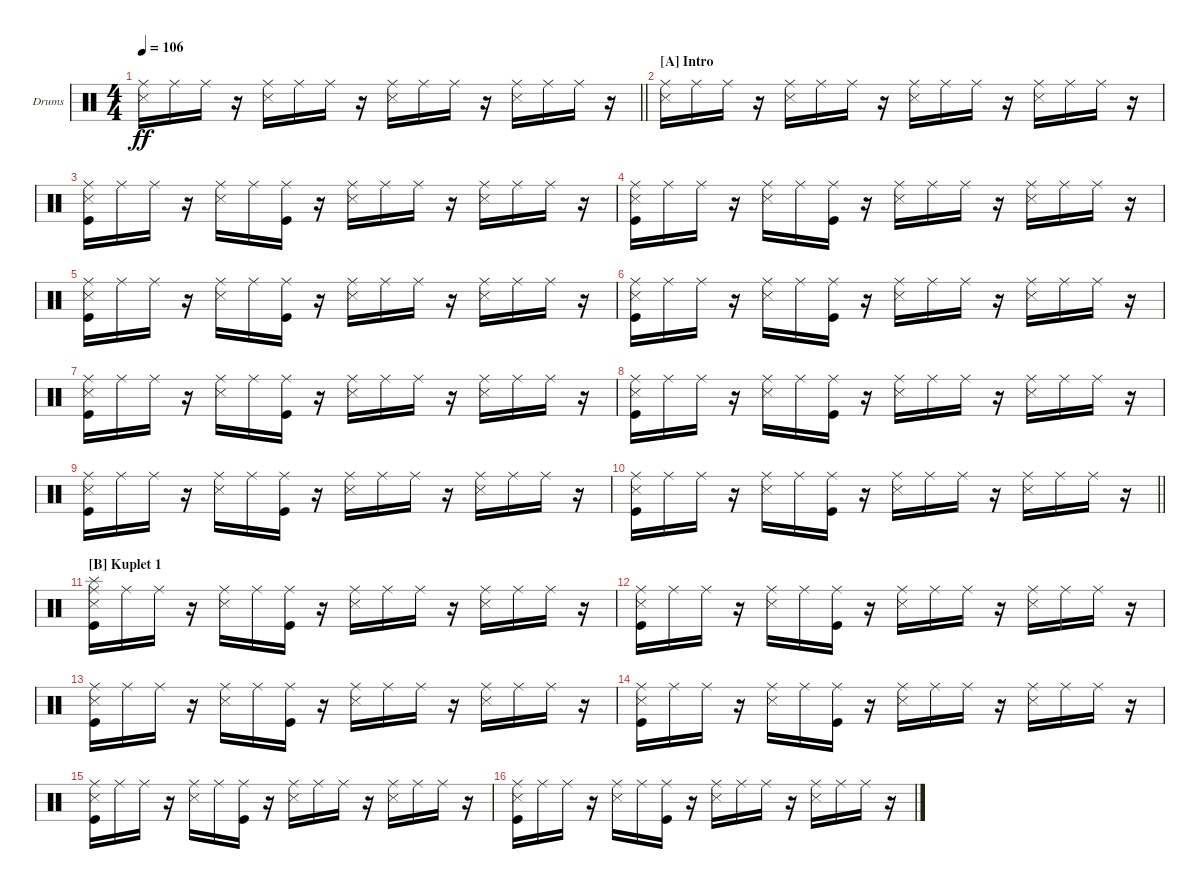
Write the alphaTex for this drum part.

\bracketExtendMode groupsimilarinstruments
\firstSystemTrackNameOrientation horizontal
\otherSystemsTrackNameOrientation horizontal
\track ("Udarnyye | A. Storozhuk" "Drums") {instrument percussion}
\staff {score}
\articulation defaults
\ts (4 4)
\beaming (8 2 2 2 2)
\tempo 106
\clef neutral
\barLineRight lightlight
\ks c
("Ride (middle)" "Snare (side stick) 3").16{dy ff} "Ride (middle)".16 "Ride (middle)".16 r.16 ("Ride (middle)" "Snare (side stick) 3").16 "Ride (middle)".16 "Ride (middle)".16 r.16 ("Ride (middle)" "Snare (side stick) 3").16 "Ride (middle)".16 "Ride (middle)".16 r.16 ("Ride (middle)" "Snare (side stick) 3").16 "Ride (middle)".16 "Ride (middle)".16 r.16 |
\section ("A" "Intro")
("Ride (middle)" "Snare (side stick) 3").16 "Ride (middle)".16 "Ride (middle)".16 r.16 ("Ride (middle)" "Snare (side stick) 3").16 "Ride (middle)".16 "Ride (middle)".16 r.16 ("Ride (middle)" "Snare (side stick) 3").16 "Ride (middle)".16 "Ride (middle)".16 r.16 ("Ride (middle)" "Snare (side stick) 3").16 "Ride (middle)".16 "Ride (middle)".16 r.16 |
("Ride (middle)" "Kick (hit)" "Snare (side stick) 3").16 "Ride (middle)".16 "Ride (middle)".16 r.16 ("Ride (middle)" "Snare (side stick) 3").16 "Ride (middle)".16 ("Ride (middle)" "Kick (hit)").16 r.16 ("Ride (middle)" "Snare (side stick) 3").16 "Ride (middle)".16 "Ride (middle)".16 r.16 ("Ride (middle)" "Snare (side stick) 3").16 "Ride (middle)".16 "Ride (middle)".16 r.16 |
("Ride (middle)" "Kick (hit)" "Snare (side stick) 3").16 "Ride (middle)".16 "Ride (middle)".16 r.16 ("Ride (middle)" "Snare (side stick) 3").16 "Ride (middle)".16 ("Ride (middle)" "Kick (hit)").16 r.16 ("Ride (middle)" "Snare (side stick) 3").16 "Ride (middle)".16 "Ride (middle)".16 r.16 ("Ride (middle)" "Snare (side stick) 3").16 "Ride (middle)".16 "Ride (middle)".16 r.16 |
("Ride (middle)" "Kick (hit)" "Snare (side stick) 3").16 "Ride (middle)".16 "Ride (middle)".16 r.16 ("Ride (middle)" "Snare (side stick) 3").16 "Ride (middle)".16 ("Ride (middle)" "Kick (hit)").16 r.16 ("Ride (middle)" "Snare (side stick) 3").16 "Ride (middle)".16 "Ride (middle)".16 r.16 ("Ride (middle)" "Snare (side stick) 3").16 "Ride (middle)".16 "Ride (middle)".16 r.16 |
("Ride (middle)" "Kick (hit)" "Snare (side stick) 3").16 "Ride (middle)".16 "Ride (middle)".16 r.16 ("Ride (middle)" "Snare (side stick) 3").16 "Ride (middle)".16 ("Ride (middle)" "Kick (hit)").16 r.16 ("Ride (middle)" "Snare (side stick) 3").16 "Ride (middle)".16 "Ride (middle)".16 r.16 ("Ride (middle)" "Snare (side stick) 3").16 "Ride (middle)".16 "Ride (middle)".16 r.16 |
("Ride (middle)" "Kick (hit)" "Snare (side stick) 3").16 "Ride (middle)".16 "Ride (middle)".16 r.16 ("Ride (middle)" "Snare (side stick) 3").16 "Ride (middle)".16 ("Ride (middle)" "Kick (hit)").16 r.16 ("Ride (middle)" "Snare (side stick) 3").16 "Ride (middle)".16 "Ride (middle)".16 r.16 ("Ride (middle)" "Snare (side stick) 3").16 "Ride (middle)".16 "Ride (middle)".16 r.16 |
("Ride (middle)" "Kick (hit)" "Snare (side stick) 3").16 "Ride (middle)".16 "Ride (middle)".16 r.16 ("Ride (middle)" "Snare (side stick) 3").16 "Ride (middle)".16 ("Ride (middle)" "Kick (hit)").16 r.16 ("Ride (middle)" "Snare (side stick) 3").16 "Ride (middle)".16 "Ride (middle)".16 r.16 ("Ride (middle)" "Snare (side stick) 3").16 "Ride (middle)".16 "Ride (middle)".16 r.16 |
("Ride (middle)" "Kick (hit)" "Snare (side stick) 3").16 "Ride (middle)".16 "Ride (middle)".16 r.16 ("Ride (middle)" "Snare (side stick) 3").16 "Ride (middle)".16 ("Ride (middle)" "Kick (hit)").16 r.16 ("Ride (middle)" "Snare (side stick) 3").16 "Ride (middle)".16 "Ride (middle)".16 r.16 ("Ride (middle)" "Snare (side stick) 3").16 "Ride (middle)".16 "Ride (middle)".16 r.16 |
\barLineRight lightlight
("Ride (middle)" "Kick (hit)" "Snare (side stick) 3").16 "Ride (middle)".16 "Ride (middle)".16 r.16 ("Ride (middle)" "Snare (side stick) 3").16 "Ride (middle)".16 ("Ride (middle)" "Kick (hit)").16 r.16 ("Ride (middle)" "Snare (side stick) 3").16 "Ride (middle)".16 "Ride (middle)".16 r.16 ("Ride (middle)" "Snare (side stick) 3").16 "Ride (middle)".16 "Ride (middle)".16 r.16 |
\section ("B" "Kuplet 1")
("Kick (hit)" "Snare (side stick) 3" "Ride (middle)" "Splash (hit)").16 "Ride (middle)".16 "Ride (middle)".16 r.16 ("Ride (middle)" "Snare (side stick) 3").16 "Ride (middle)".16 ("Ride (middle)" "Kick (hit)").16 r.16 ("Ride (middle)" "Snare (side stick) 3").16 "Ride (middle)".16 "Ride (middle)".16 r.16 ("Ride (middle)" "Snare (side stick) 3").16 "Ride (middle)".16 "Ride (middle)".16 r.16 |
("Ride (middle)" "Kick (hit)" "Snare (side stick) 3").16 "Ride (middle)".16 "Ride (middle)".16 r.16 ("Ride (middle)" "Snare (side stick) 3").16 "Ride (middle)".16 ("Ride (middle)" "Kick (hit)").16 r.16 ("Ride (middle)" "Snare (side stick) 3").16 "Ride (middle)".16 "Ride (middle)".16 r.16 ("Ride (middle)" "Snare (side stick) 3").16 "Ride (middle)".16 "Ride (middle)".16 r.16 |
("Ride (middle)" "Kick (hit)" "Snare (side stick) 3").16 "Ride (middle)".16 "Ride (middle)".16 r.16 ("Ride (middle)" "Snare (side stick) 3").16 "Ride (middle)".16 ("Ride (middle)" "Kick (hit)").16 r.16 ("Ride (middle)" "Snare (side stick) 3").16 "Ride (middle)".16 "Ride (middle)".16 r.16 ("Ride (middle)" "Snare (side stick) 3").16 "Ride (middle)".16 "Ride (middle)".16 r.16 |
("Ride (middle)" "Kick (hit)" "Snare (side stick) 3").16 "Ride (middle)".16 "Ride (middle)".16 r.16 ("Ride (middle)" "Snare (side stick) 3").16 "Ride (middle)".16 ("Ride (middle)" "Kick (hit)").16 r.16 ("Ride (middle)" "Snare (side stick) 3").16 "Ride (middle)".16 "Ride (middle)".16 r.16 ("Ride (middle)" "Snare (side stick) 3").16 "Ride (middle)".16 "Ride (middle)".16 r.16 |
("Ride (middle)" "Kick (hit)" "Snare (side stick) 3").16 "Ride (middle)".16 "Ride (middle)".16 r.16 ("Ride (middle)" "Snare (side stick) 3").16 "Ride (middle)".16 ("Ride (middle)" "Kick (hit)").16 r.16 ("Ride (middle)" "Snare (side stick) 3").16 "Ride (middle)".16 "Ride (middle)".16 r.16 ("Ride (middle)" "Snare (side stick) 3").16 "Ride (middle)".16 "Ride (middle)".16 r.16 |
("Ride (middle)" "Kick (hit)" "Snare (side stick) 3").16 "Ride (middle)".16 "Ride (middle)".16 r.16 ("Ride (middle)" "Snare (side stick) 3").16 "Ride (middle)".16 ("Ride (middle)" "Kick (hit)").16 r.16 ("Ride (middle)" "Snare (side stick) 3").16 "Ride (middle)".16 "Ride (middle)".16 r.16 ("Ride (middle)" "Snare (side stick) 3").16 "Ride (middle)".16 "Ride (middle)".16 r.16
